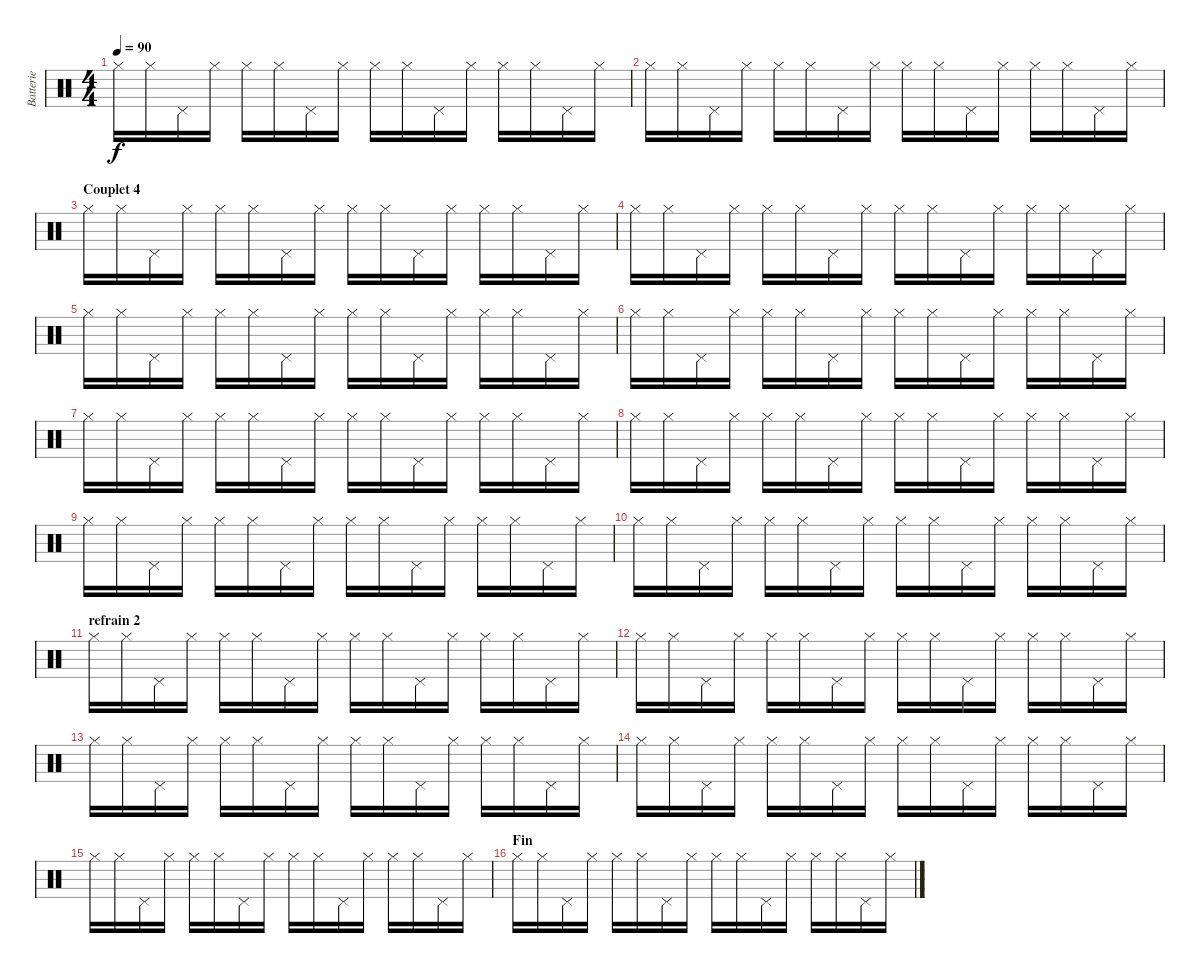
\track ("Batterie" "Batterie") {instrument percussion}
\staff {score}
\articulation defaults
\ts (4 4)
\tempo 90
\clef neutral
\ks c "Hi-Hat (closed)".16{dy f} "Hi-Hat (closed)".16 "Pedal Hi-Hat (hit)".16 "Hi-Hat (closed)".16 "Hi-Hat (closed)".16 "Hi-Hat (closed)".16 "Pedal Hi-Hat (hit)".16 "Hi-Hat (closed)".16 "Hi-Hat (closed)".16 "Hi-Hat (closed)".16 "Pedal Hi-Hat (hit)".16 "Hi-Hat (closed)".16 "Hi-Hat (closed)".16 "Hi-Hat (closed)".16 "Pedal Hi-Hat (hit)".16 "Hi-Hat (closed)".16
|
"Hi-Hat (closed)".16 "Hi-Hat (closed)".16 "Pedal Hi-Hat (hit)".16 "Hi-Hat (closed)".16 "Hi-Hat (closed)".16 "Hi-Hat (closed)".16 "Pedal Hi-Hat (hit)".16 "Hi-Hat (closed)".16 "Hi-Hat (closed)".16 "Hi-Hat (closed)".16 "Pedal Hi-Hat (hit)".16 "Hi-Hat (closed)".16 "Hi-Hat (closed)".16 "Hi-Hat (closed)".16 "Pedal Hi-Hat (hit)".16 "Hi-Hat (closed)".16 |
\section ("" "Couplet 4")
"Hi-Hat (closed)".16 "Hi-Hat (closed)".16 "Pedal Hi-Hat (hit)".16 "Hi-Hat (closed)".16 "Hi-Hat (closed)".16 "Hi-Hat (closed)".16 "Pedal Hi-Hat (hit)".16 "Hi-Hat (closed)".16 "Hi-Hat (closed)".16 "Hi-Hat (closed)".16 "Pedal Hi-Hat (hit)".16 "Hi-Hat (closed)".16 "Hi-Hat (closed)".16 "Hi-Hat (closed)".16 "Pedal Hi-Hat (hit)".16 "Hi-Hat (closed)".16 |
"Hi-Hat (closed)".16 "Hi-Hat (closed)".16 "Pedal Hi-Hat (hit)".16 "Hi-Hat (closed)".16 "Hi-Hat (closed)".16 "Hi-Hat (closed)".16 "Pedal Hi-Hat (hit)".16 "Hi-Hat (closed)".16 "Hi-Hat (closed)".16 "Hi-Hat (closed)".16 "Pedal Hi-Hat (hit)".16 "Hi-Hat (closed)".16 "Hi-Hat (closed)".16 "Hi-Hat (closed)".16 "Pedal Hi-Hat (hit)".16 "Hi-Hat (closed)".16 |
"Hi-Hat (closed)".16 "Hi-Hat (closed)".16 "Pedal Hi-Hat (hit)".16 "Hi-Hat (closed)".16 "Hi-Hat (closed)".16 "Hi-Hat (closed)".16 "Pedal Hi-Hat (hit)".16 "Hi-Hat (closed)".16 "Hi-Hat (closed)".16 "Hi-Hat (closed)".16 "Pedal Hi-Hat (hit)".16 "Hi-Hat (closed)".16 "Hi-Hat (closed)".16 "Hi-Hat (closed)".16 "Pedal Hi-Hat (hit)".16 "Hi-Hat (closed)".16 |
"Hi-Hat (closed)".16 "Hi-Hat (closed)".16 "Pedal Hi-Hat (hit)".16 "Hi-Hat (closed)".16 "Hi-Hat (closed)".16 "Hi-Hat (closed)".16 "Pedal Hi-Hat (hit)".16 "Hi-Hat (closed)".16 "Hi-Hat (closed)".16 "Hi-Hat (closed)".16 "Pedal Hi-Hat (hit)".16 "Hi-Hat (closed)".16 "Hi-Hat (closed)".16 "Hi-Hat (closed)".16 "Pedal Hi-Hat (hit)".16 "Hi-Hat (closed)".16 |
"Hi-Hat (closed)".16 "Hi-Hat (closed)".16 "Pedal Hi-Hat (hit)".16 "Hi-Hat (closed)".16 "Hi-Hat (closed)".16 "Hi-Hat (closed)".16 "Pedal Hi-Hat (hit)".16 "Hi-Hat (closed)".16 "Hi-Hat (closed)".16 "Hi-Hat (closed)".16 "Pedal Hi-Hat (hit)".16 "Hi-Hat (closed)".16 "Hi-Hat (closed)".16 "Hi-Hat (closed)".16 "Pedal Hi-Hat (hit)".16 "Hi-Hat (closed)".16 |
"Hi-Hat (closed)".16 "Hi-Hat (closed)".16 "Pedal Hi-Hat (hit)".16 "Hi-Hat (closed)".16 "Hi-Hat (closed)".16 "Hi-Hat (closed)".16 "Pedal Hi-Hat (hit)".16 "Hi-Hat (closed)".16 "Hi-Hat (closed)".16 "Hi-Hat (closed)".16 "Pedal Hi-Hat (hit)".16 "Hi-Hat (closed)".16 "Hi-Hat (closed)".16 "Hi-Hat (closed)".16 "Pedal Hi-Hat (hit)".16 "Hi-Hat (closed)".16 |
"Hi-Hat (closed)".16 "Hi-Hat (closed)".16 "Pedal Hi-Hat (hit)".16 "Hi-Hat (closed)".16 "Hi-Hat (closed)".16 "Hi-Hat (closed)".16 "Pedal Hi-Hat (hit)".16 "Hi-Hat (closed)".16 "Hi-Hat (closed)".16 "Hi-Hat (closed)".16 "Pedal Hi-Hat (hit)".16 "Hi-Hat (closed)".16 "Hi-Hat (closed)".16 "Hi-Hat (closed)".16 "Pedal Hi-Hat (hit)".16 "Hi-Hat (closed)".16 |
"Hi-Hat (closed)".16 "Hi-Hat (closed)".16 "Pedal Hi-Hat (hit)".16 "Hi-Hat (closed)".16 "Hi-Hat (closed)".16 "Hi-Hat (closed)".16 "Pedal Hi-Hat (hit)".16 "Hi-Hat (closed)".16 "Hi-Hat (closed)".16 "Hi-Hat (closed)".16 "Pedal Hi-Hat (hit)".16 "Hi-Hat (closed)".16 "Hi-Hat (closed)".16 "Hi-Hat (closed)".16 "Pedal Hi-Hat (hit)".16 "Hi-Hat (closed)".16 |
\section ("" "refrain 2")
"Hi-Hat (closed)".16 "Hi-Hat (closed)".16 "Pedal Hi-Hat (hit)".16 "Hi-Hat (closed)".16 "Hi-Hat (closed)".16 "Hi-Hat (closed)".16 "Pedal Hi-Hat (hit)".16 "Hi-Hat (closed)".16 "Hi-Hat (closed)".16 "Hi-Hat (closed)".16 "Pedal Hi-Hat (hit)".16 "Hi-Hat (closed)".16 "Hi-Hat (closed)".16 "Hi-Hat (closed)".16 "Pedal Hi-Hat (hit)".16 "Hi-Hat (closed)".16 |
"Hi-Hat (closed)".16 "Hi-Hat (closed)".16 "Pedal Hi-Hat (hit)".16 "Hi-Hat (closed)".16 "Hi-Hat (closed)".16 "Hi-Hat (closed)".16 "Pedal Hi-Hat (hit)".16 "Hi-Hat (closed)".16 "Hi-Hat (closed)".16 "Hi-Hat (closed)".16 "Pedal Hi-Hat (hit)".16 "Hi-Hat (closed)".16 "Hi-Hat (closed)".16 "Hi-Hat (closed)".16 "Pedal Hi-Hat (hit)".16 "Hi-Hat (closed)".16 |
"Hi-Hat (closed)".16 "Hi-Hat (closed)".16 "Pedal Hi-Hat (hit)".16 "Hi-Hat (closed)".16 "Hi-Hat (closed)".16 "Hi-Hat (closed)".16 "Pedal Hi-Hat (hit)".16 "Hi-Hat (closed)".16 "Hi-Hat (closed)".16 "Hi-Hat (closed)".16 "Pedal Hi-Hat (hit)".16 "Hi-Hat (closed)".16 "Hi-Hat (closed)".16 "Hi-Hat (closed)".16 "Pedal Hi-Hat (hit)".16 "Hi-Hat (closed)".16 |
"Hi-Hat (closed)".16 "Hi-Hat (closed)".16 "Pedal Hi-Hat (hit)".16 "Hi-Hat (closed)".16 "Hi-Hat (closed)".16 "Hi-Hat (closed)".16 "Pedal Hi-Hat (hit)".16 "Hi-Hat (closed)".16 "Hi-Hat (closed)".16 "Hi-Hat (closed)".16 "Pedal Hi-Hat (hit)".16 "Hi-Hat (closed)".16 "Hi-Hat (closed)".16 "Hi-Hat (closed)".16 "Pedal Hi-Hat (hit)".16 "Hi-Hat (closed)".16 |
"Hi-Hat (closed)".16 "Hi-Hat (closed)".16 "Pedal Hi-Hat (hit)".16 "Hi-Hat (closed)".16 "Hi-Hat (closed)".16 "Hi-Hat (closed)".16 "Pedal Hi-Hat (hit)".16 "Hi-Hat (closed)".16 "Hi-Hat (closed)".16 "Hi-Hat (closed)".16 "Pedal Hi-Hat (hit)".16 "Hi-Hat (closed)".16 "Hi-Hat (closed)".16 "Hi-Hat (closed)".16 "Pedal Hi-Hat (hit)".16 "Hi-Hat (closed)".16 |
\section ("" "Fin")
"Hi-Hat (closed)".16 "Hi-Hat (closed)".16 "Pedal Hi-Hat (hit)".16 "Hi-Hat (closed)".16 "Hi-Hat (closed)".16 "Hi-Hat (closed)".16 "Pedal Hi-Hat (hit)".16 "Hi-Hat (closed)".16 "Hi-Hat (closed)".16 "Hi-Hat (closed)".16 "Pedal Hi-Hat (hit)".16 "Hi-Hat (closed)".16 "Hi-Hat (closed)".16 "Hi-Hat (closed)".16 "Pedal Hi-Hat (hit)".16 "Hi-Hat (closed)".16
